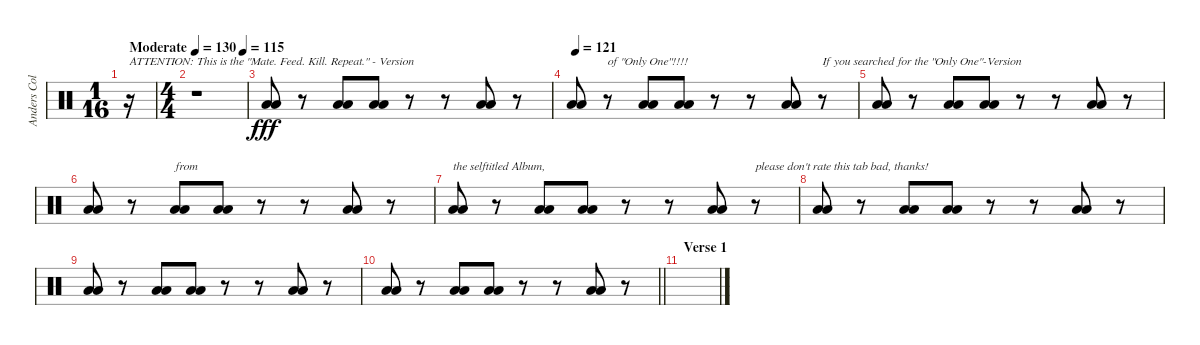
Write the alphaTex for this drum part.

\track ("Anders Colsefni" "Anders Col") {instrument percussion}
\staff {score}
\articulation defaults
\ts (1 16)
\tempo (130 "Moderate")
\tempo 140
\tempo (130 "Moderate")
\clef neutral
\ks c
r.16{txt "ATTENTION:" dy fff} |
\ts (4 4)
\tempo (115 0.9375)
r.1{txt "This is the \"Mate. Feed. Kill. Repeat.\" - Version"} |
("Low Floor Tom (hit)" "Low Floor Tom (hit)").8 r.8 ("Low Floor Tom (hit)" "Low Floor Tom (hit)").8 ("Low Floor Tom (hit)" "Low Floor Tom (hit)").8 r.8 r.8 ("Low Floor Tom (hit)" "Low Floor Tom (hit)").8 r.8 |
\tempo 121
("Low Floor Tom (hit)" "Low Floor Tom (hit)").8 r.8{txt "of \"Only One\"!!!!"} ("Low Floor Tom (hit)" "Low Floor Tom (hit)").8 ("Low Floor Tom (hit)" "Low Floor Tom (hit)").8 r.8 r.8 ("Low Floor Tom (hit)" "Low Floor Tom (hit)").8 r.8{txt "If you searched for the \"Only One\"-Version"} |
("Low Floor Tom (hit)" "Low Floor Tom (hit)").8 r.8 ("Low Floor Tom (hit)" "Low Floor Tom (hit)").8 ("Low Floor Tom (hit)" "Low Floor Tom (hit)").8 r.8 r.8 ("Low Floor Tom (hit)" "Low Floor Tom (hit)").8 r.8 |
("Low Floor Tom (hit)" "Low Floor Tom (hit)").8 r.8 ("Low Floor Tom (hit)" "Low Floor Tom (hit)").8{txt "from"} ("Low Floor Tom (hit)" "Low Floor Tom (hit)").8 r.8 r.8 ("Low Floor Tom (hit)" "Low Floor Tom (hit)").8 r.8 |
("Low Floor Tom (hit)" "Low Floor Tom (hit)").8{txt "the selftitled Album,"} r.8 ("Low Floor Tom (hit)" "Low Floor Tom (hit)").8 ("Low Floor Tom (hit)" "Low Floor Tom (hit)").8 r.8 r.8 ("Low Floor Tom (hit)" "Low Floor Tom (hit)").8 r.8{txt "please don't rate this tab bad, thanks!"} |
("Low Floor Tom (hit)" "Low Floor Tom (hit)").8 r.8 ("Low Floor Tom (hit)" "Low Floor Tom (hit)").8 ("Low Floor Tom (hit)" "Low Floor Tom (hit)").8 r.8 r.8 ("Low Floor Tom (hit)" "Low Floor Tom (hit)").8 r.8 |
("Low Floor Tom (hit)" "Low Floor Tom (hit)").8 r.8 ("Low Floor Tom (hit)" "Low Floor Tom (hit)").8 ("Low Floor Tom (hit)" "Low Floor Tom (hit)").8 r.8 r.8 ("Low Floor Tom (hit)" "Low Floor Tom (hit)").8 r.8 |
\barLineRight lightlight
("Low Floor Tom (hit)" "Low Floor Tom (hit)").8 r.8 ("Low Floor Tom (hit)" "Low Floor Tom (hit)").8 ("Low Floor Tom (hit)" "Low Floor Tom (hit)").8 r.8 r.8 ("Low Floor Tom (hit)" "Low Floor Tom (hit)").8 r.8 |
\section ("" "Verse 1")
